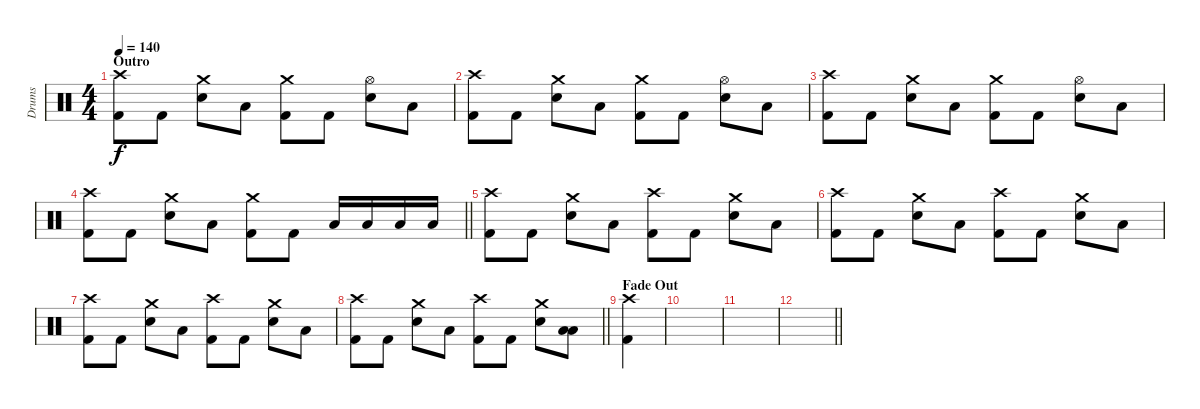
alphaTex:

\track ("Drums" "Drums") {instrument percussion}
\staff
\articulation defaults
\ts (4 4)
\section ("" "Outro")
\tempo 140
\clef neutral
\ks c
("Crash high (hit)" "Kick (hit) 2").8{dy f} "Kick (hit) 2".8 ("Snare (hit) 2" "Crash medium (hit)").8 "Low Floor Tom (hit)".8 ("Crash medium (hit)" "Kick (hit) 2").8 "Kick (hit) 2".8 ("Snare (hit) 2" "Hi-Hat (open)").8 "Low Floor Tom (hit)".8 |
("Crash high (hit)" "Kick (hit) 2").8 "Kick (hit) 2".8 ("Snare (hit) 2" "Crash medium (hit)").8 "Low Floor Tom (hit)".8 ("Crash medium (hit)" "Kick (hit) 2").8 "Kick (hit) 2".8 ("Snare (hit) 2" "Hi-Hat (open)").8 "Low Floor Tom (hit)".8 |
("Crash high (hit)" "Kick (hit) 2").8 "Kick (hit) 2".8 ("Snare (hit) 2" "Crash medium (hit)").8 "Low Floor Tom (hit)".8 ("Crash medium (hit)" "Kick (hit) 2").8 "Kick (hit) 2".8 ("Snare (hit) 2" "Hi-Hat (open)").8 "Low Floor Tom (hit)".8 |
\barLineRight lightlight
("Crash high (hit)" "Kick (hit) 2").8 "Kick (hit) 2".8 ("Snare (hit) 2" "Crash medium (hit)").8 "Low Floor Tom (hit)".8 ("Crash medium (hit)" "Kick (hit) 2").8 "Kick (hit) 2".8 "Low Tom (hit)".16 "Low Tom (hit)".16 "Low Floor Tom (hit)".16 "Low Floor Tom (hit)".16 |
("Crash high (hit)" "Kick (hit) 2").8 "Kick (hit) 2".8 ("Crash medium (hit)" "Snare (hit) 2").8 "Low Floor Tom (hit)".8 ("Crash high (hit)" "Kick (hit) 2").8 "Kick (hit) 2".8 ("Crash medium (hit)" "Snare (hit) 2").8 "Low Floor Tom (hit)".8 |
("Crash high (hit)" "Kick (hit) 2").8 "Kick (hit) 2".8 ("Crash medium (hit)" "Snare (hit) 2").8 "Low Floor Tom (hit)".8 ("Crash high (hit)" "Kick (hit) 2").8 "Kick (hit) 2".8 ("Crash medium (hit)" "Snare (hit) 2").8 "Low Floor Tom (hit)".8 |
("Crash high (hit)" "Kick (hit) 2").8 "Kick (hit) 2".8 ("Crash medium (hit)" "Snare (hit) 2").8 "Low Floor Tom (hit)".8 ("Crash high (hit)" "Kick (hit) 2").8 "Kick (hit) 2".8 ("Crash medium (hit)" "Snare (hit) 2").8 "Low Floor Tom (hit)".8 |
\barLineRight lightlight
("Crash high (hit)" "Kick (hit) 2").8 "Kick (hit) 2".8 ("Snare (hit) 2" "Crash medium (hit)").8 "Low Floor Tom (hit)".8 ("Crash high (hit)" "Kick (hit) 2").8 "Kick (hit) 2".8 ("Snare (hit) 2" "Crash medium (hit)").8 ("Low Tom (hit)" "Low Floor Tom (hit)").8 |
\section ("" "Fade Out")
("Crash high (hit)" "Kick (hit) 2").4 |
|
|
\barLineRight lightlight
